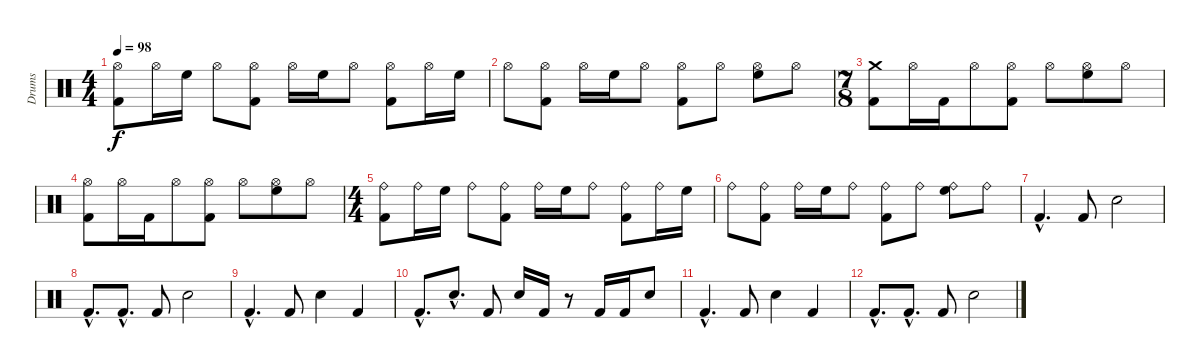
\track ("Drums" "Drums") {instrument percussion}
\staff {score}
\articulation defaults
\ts (4 4)
\tempo 98
\clef neutral
\ks c
("Hi-Hat (open)" "Kick (hit) 2").8{dy f} "Hi-Hat (open)".16 "High Floor Tom (hit)".16 "Hi-Hat (open)".8 ("Hi-Hat (open)" "Kick (hit) 2").8 "Hi-Hat (open)".16 "High Floor Tom (hit)".16 "Hi-Hat (open)".8 ("Hi-Hat (open)" "Kick (hit) 2").8 "Hi-Hat (open)".16 "High Floor Tom (hit)".16 |
"Hi-Hat (open)".8 ("Hi-Hat (open)" "Kick (hit) 2").8 "Hi-Hat (open)".16 "High Floor Tom (hit)".16 "Hi-Hat (open)".8 ("Hi-Hat (open)" "Kick (hit) 2").8 "Hi-Hat (open)".8 ("Hi-Hat (open)" "High Floor Tom (hit)").8 "Hi-Hat (open)".8 |
\ts (7 8)
("Crash medium (hit)" "Kick (hit) 2").8 "Hi-Hat (open)".16 "Kick (hit) 2".16 "Hi-Hat (open)".8 ("Hi-Hat (open)" "Kick (hit) 2").8 "Hi-Hat (open)".8 ("Hi-Hat (open)" "High Floor Tom (hit)").8 "Hi-Hat (open)".8 |
("Hi-Hat (open)" "Kick (hit) 2").8 "Hi-Hat (open)".16 "Kick (hit) 2".16 "Hi-Hat (open)".8 ("Hi-Hat (open)" "Kick (hit) 2").8 "Hi-Hat (open)".8 ("Hi-Hat (open)" "High Floor Tom (hit)").8 "Hi-Hat (open)".8 |
\ts (4 4)
("Ride (bell)" "Kick (hit) 2").8 "Ride (bell)".16 "High Floor Tom (hit)".16 "Ride (bell)".8 ("Ride (bell)" "Kick (hit) 2").8 "Ride (bell)".16 "High Floor Tom (hit)".16 "Ride (bell)".8 ("Ride (bell)" "Kick (hit) 2").8 "Ride (bell)".16 "High Floor Tom (hit)".16 |
"Ride (bell)".8 ("Ride (bell)" "Kick (hit) 2").8 "Ride (bell)".16 "High Floor Tom (hit)".16 "Ride (bell)".8 ("Ride (bell)" "Kick (hit) 2").8 "Ride (bell)".8 ("Ride (bell)" "High Floor Tom (hit)").8 "Ride (bell)".8 |
"Kick (hit) 2"{hac}.4{d} "Kick (hit) 2".8 "Snare (hit) 2".2 |
"Kick (hit) 2"{hac}.8{d} "Kick (hit) 2"{hac}.8{d} "Kick (hit) 2".8 "Snare (hit) 2".2 |
"Kick (hit) 2"{hac}.4{d} "Kick (hit) 2".8 "Snare (hit) 2".4 "Kick (hit) 2".4 |
"Kick (hit) 2"{hac}.8{d} "Snare (hit) 2"{hac}.8{d} "Kick (hit) 2".8 "Snare (hit) 2".16 "Kick (hit) 2".16 r.8 "Kick (hit) 2".16 "Kick (hit) 2".16 "Snare (hit) 2".8 |
"Kick (hit) 2"{hac}.4{d} "Kick (hit) 2".8 "Snare (hit) 2".4 "Kick (hit) 2".4 |
"Kick (hit) 2"{hac}.8{d} "Kick (hit) 2"{hac}.8{d} "Kick (hit) 2".8 "Snare (hit) 2".2
